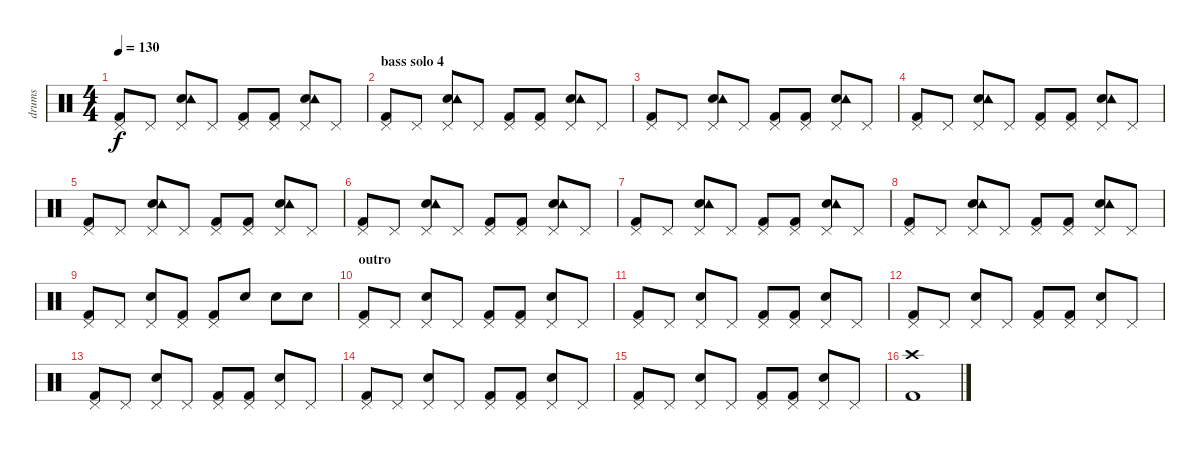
\track ("drums" "drums") {instrument percussion}
\staff {score}
\articulation defaults
\ts (4 4)
\tempo 130
\clef neutral
\ks c
("Kick (hit) 2" "Pedal Hi-Hat (hit)").8{dy f} "Pedal Hi-Hat (hit)".8 ("Snare (hit) 2" "Tambourine (hit)" "Pedal Hi-Hat (hit)").8 "Pedal Hi-Hat (hit)".8 ("Kick (hit) 2" "Pedal Hi-Hat (hit)").8 ("Kick (hit) 2" "Pedal Hi-Hat (hit)").8 ("Snare (hit) 2" "Tambourine (hit)" "Pedal Hi-Hat (hit)").8 "Pedal Hi-Hat (hit)".8 |
\section ("" "bass solo 4")
("Kick (hit) 2" "Pedal Hi-Hat (hit)").8 "Pedal Hi-Hat (hit)".8 ("Snare (hit) 2" "Tambourine (hit)" "Pedal Hi-Hat (hit)").8 "Pedal Hi-Hat (hit)".8 ("Kick (hit) 2" "Pedal Hi-Hat (hit)").8 ("Kick (hit) 2" "Pedal Hi-Hat (hit)").8 ("Snare (hit) 2" "Tambourine (hit)" "Pedal Hi-Hat (hit)").8 "Pedal Hi-Hat (hit)".8 |
("Kick (hit) 2" "Pedal Hi-Hat (hit)").8 "Pedal Hi-Hat (hit)".8 ("Snare (hit) 2" "Tambourine (hit)" "Pedal Hi-Hat (hit)").8 "Pedal Hi-Hat (hit)".8 ("Kick (hit) 2" "Pedal Hi-Hat (hit)").8 ("Kick (hit) 2" "Pedal Hi-Hat (hit)").8 ("Snare (hit) 2" "Tambourine (hit)" "Pedal Hi-Hat (hit)").8 "Pedal Hi-Hat (hit)".8 |
("Kick (hit) 2" "Pedal Hi-Hat (hit)").8 "Pedal Hi-Hat (hit)".8 ("Snare (hit) 2" "Tambourine (hit)" "Pedal Hi-Hat (hit)").8 "Pedal Hi-Hat (hit)".8 ("Kick (hit) 2" "Pedal Hi-Hat (hit)").8 ("Kick (hit) 2" "Pedal Hi-Hat (hit)").8 ("Snare (hit) 2" "Tambourine (hit)" "Pedal Hi-Hat (hit)").8 "Pedal Hi-Hat (hit)".8 |
("Kick (hit) 2" "Pedal Hi-Hat (hit)").8 "Pedal Hi-Hat (hit)".8 ("Snare (hit) 2" "Tambourine (hit)" "Pedal Hi-Hat (hit)").8 "Pedal Hi-Hat (hit)".8 ("Kick (hit) 2" "Pedal Hi-Hat (hit)").8 ("Kick (hit) 2" "Pedal Hi-Hat (hit)").8 ("Snare (hit) 2" "Tambourine (hit)" "Pedal Hi-Hat (hit)").8 "Pedal Hi-Hat (hit)".8 |
("Kick (hit) 2" "Pedal Hi-Hat (hit)").8 "Pedal Hi-Hat (hit)".8 ("Snare (hit) 2" "Tambourine (hit)" "Pedal Hi-Hat (hit)").8 "Pedal Hi-Hat (hit)".8 ("Kick (hit) 2" "Pedal Hi-Hat (hit)").8 ("Kick (hit) 2" "Pedal Hi-Hat (hit)").8 ("Snare (hit) 2" "Tambourine (hit)" "Pedal Hi-Hat (hit)").8 "Pedal Hi-Hat (hit)".8 |
("Kick (hit) 2" "Pedal Hi-Hat (hit)").8 "Pedal Hi-Hat (hit)".8 ("Snare (hit) 2" "Tambourine (hit)" "Pedal Hi-Hat (hit)").8 "Pedal Hi-Hat (hit)".8 ("Kick (hit) 2" "Pedal Hi-Hat (hit)").8 ("Kick (hit) 2" "Pedal Hi-Hat (hit)").8 ("Snare (hit) 2" "Tambourine (hit)" "Pedal Hi-Hat (hit)").8 "Pedal Hi-Hat (hit)".8 |
("Kick (hit) 2" "Pedal Hi-Hat (hit)").8 "Pedal Hi-Hat (hit)".8 ("Snare (hit) 2" "Tambourine (hit)" "Pedal Hi-Hat (hit)").8 "Pedal Hi-Hat (hit)".8 ("Kick (hit) 2" "Pedal Hi-Hat (hit)").8 ("Kick (hit) 2" "Pedal Hi-Hat (hit)").8 ("Snare (hit) 2" "Tambourine (hit)" "Pedal Hi-Hat (hit)").8 "Pedal Hi-Hat (hit)".8 |
("Kick (hit) 2" "Pedal Hi-Hat (hit)").8 "Pedal Hi-Hat (hit)".8 ("Snare (hit) 2" "Pedal Hi-Hat (hit)").8 ("Kick (hit) 2" "Pedal Hi-Hat (hit)").8 ("Kick (hit) 2" "Pedal Hi-Hat (hit)").8 "Snare (hit) 2"{tr (38 16)}.8 "Snare (hit) 2"{tr (38 16)}.8 "Snare (hit) 2"{tr (38 16)}.8 |
\section ("" "outro")
("Kick (hit) 2" "Pedal Hi-Hat (hit)").8 "Pedal Hi-Hat (hit)".8 ("Snare (hit) 2" "Pedal Hi-Hat (hit)").8 "Pedal Hi-Hat (hit)".8 ("Kick (hit) 2" "Pedal Hi-Hat (hit)").8 ("Kick (hit) 2" "Pedal Hi-Hat (hit)").8 ("Snare (hit) 2" "Pedal Hi-Hat (hit)").8 "Pedal Hi-Hat (hit)".8 |
("Kick (hit) 2" "Pedal Hi-Hat (hit)").8 "Pedal Hi-Hat (hit)".8 ("Snare (hit) 2" "Pedal Hi-Hat (hit)").8 "Pedal Hi-Hat (hit)".8 ("Kick (hit) 2" "Pedal Hi-Hat (hit)").8 ("Kick (hit) 2" "Pedal Hi-Hat (hit)").8 ("Snare (hit) 2" "Pedal Hi-Hat (hit)").8 "Pedal Hi-Hat (hit)".8 |
("Kick (hit) 2" "Pedal Hi-Hat (hit)").8 "Pedal Hi-Hat (hit)".8 ("Snare (hit) 2" "Pedal Hi-Hat (hit)").8 "Pedal Hi-Hat (hit)".8 ("Kick (hit) 2" "Pedal Hi-Hat (hit)").8 ("Kick (hit) 2" "Pedal Hi-Hat (hit)").8 ("Snare (hit) 2" "Pedal Hi-Hat (hit)").8 "Pedal Hi-Hat (hit)".8 |
("Kick (hit) 2" "Pedal Hi-Hat (hit)").8 "Pedal Hi-Hat (hit)".8 ("Snare (hit) 2" "Pedal Hi-Hat (hit)").8 "Pedal Hi-Hat (hit)".8 ("Kick (hit) 2" "Pedal Hi-Hat (hit)").8 ("Kick (hit) 2" "Pedal Hi-Hat (hit)").8 ("Snare (hit) 2" "Pedal Hi-Hat (hit)").8 "Pedal Hi-Hat (hit)".8 |
("Kick (hit) 2" "Pedal Hi-Hat (hit)").8 "Pedal Hi-Hat (hit)".8 ("Snare (hit) 2" "Pedal Hi-Hat (hit)").8 "Pedal Hi-Hat (hit)".8 ("Kick (hit) 2" "Pedal Hi-Hat (hit)").8 ("Kick (hit) 2" "Pedal Hi-Hat (hit)").8 ("Snare (hit) 2" "Pedal Hi-Hat (hit)").8 "Pedal Hi-Hat (hit)".8 |
("Kick (hit) 2" "Pedal Hi-Hat (hit)").8 "Pedal Hi-Hat (hit)".8 ("Snare (hit) 2" "Pedal Hi-Hat (hit)").8 "Pedal Hi-Hat (hit)".8 ("Kick (hit) 2" "Pedal Hi-Hat (hit)").8 ("Kick (hit) 2" "Pedal Hi-Hat (hit)").8 ("Snare (hit) 2" "Pedal Hi-Hat (hit)").8 "Pedal Hi-Hat (hit)".8 |
("Kick (hit) 2" "Crash high (hit)").1
